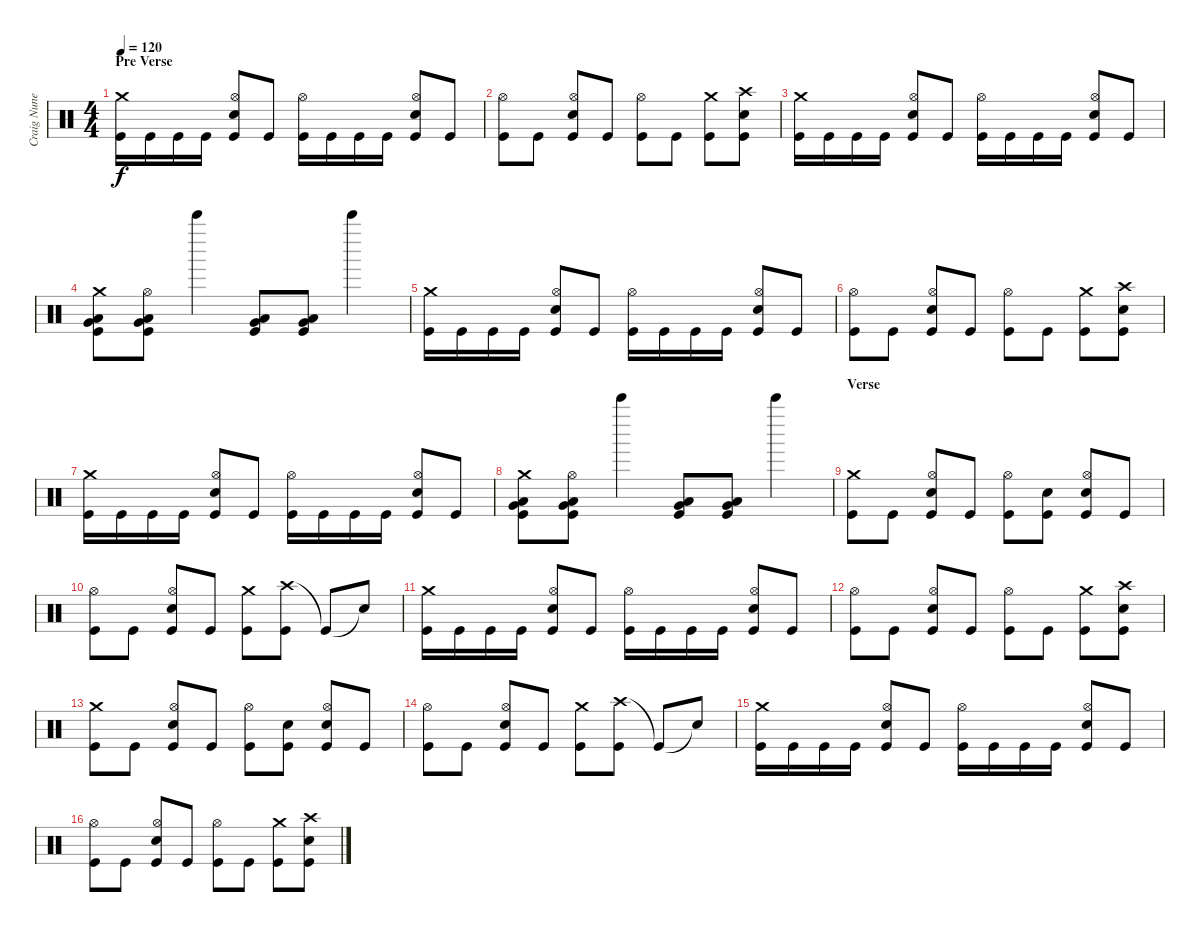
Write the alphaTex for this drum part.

\track ("Craig Nunenmacher" "Craig Nune") {instrument percussion}
\staff {score}
\articulation defaults
\ts (4 4)
\section ("" "Pre Verse")
\tempo 120
\clef neutral
\ks c
("Crash medium (hit)" "Kick (hit)").16{dy f} "Kick (hit)".16 "Kick (hit)".16 "Kick (hit)".16 ("Hi-Hat (open)" "Snare (hit) 2" "Kick (hit)").8 "Kick (hit)".8 ("Hi-Hat (open)" "Kick (hit)").16 "Kick (hit)".16 "Kick (hit)".16 "Kick (hit)".16 ("Hi-Hat (open)" "Snare (hit) 2" "Kick (hit)").8 "Kick (hit)".8 |
("Hi-Hat (open)" "Kick (hit)").8 "Kick (hit)".8 ("Hi-Hat (open)" "Snare (hit) 2" "Kick (hit)").8 "Kick (hit)".8 ("Hi-Hat (open)" "Kick (hit)").8 "Kick (hit)".8 ("Crash medium (hit)" "Kick (hit)").8 ("Crash high (hit)" "Snare (hit) 2" "Kick (hit)").8 |
("Crash medium (hit)" "Kick (hit)").16 "Kick (hit)".16 "Kick (hit)".16 "Kick (hit)".16 ("Hi-Hat (open)" "Snare (hit) 2" "Kick (hit)").8 "Kick (hit)".8 ("Hi-Hat (open)" "Kick (hit)").16 "Kick (hit)".16 "Kick (hit)".16 "Kick (hit)".16 ("Hi-Hat (open)" "Snare (hit) 2" "Kick (hit)").8 "Kick (hit)".8 |
("Crash medium (hit)" "Low Tom (hit)" "Very Low Tom (hit)" "Kick (hit)").8 ("Hi-Hat (open)" "Low Tom (hit)" "Very Low Tom (hit)" "Kick (hit)").8 "Bell Tree (hit)".4 ("Low Tom (hit)" "Very Low Tom (hit)" "Kick (hit)").8 ("Low Tom (hit)" "Very Low Tom (hit)" "Kick (hit)").8 "Bell Tree (hit)".4 |
("Crash medium (hit)" "Kick (hit)").16 "Kick (hit)".16 "Kick (hit)".16 "Kick (hit)".16 ("Hi-Hat (open)" "Snare (hit) 2" "Kick (hit)").8 "Kick (hit)".8 ("Hi-Hat (open)" "Kick (hit)").16 "Kick (hit)".16 "Kick (hit)".16 "Kick (hit)".16 ("Hi-Hat (open)" "Snare (hit) 2" "Kick (hit)").8 "Kick (hit)".8 |
("Hi-Hat (open)" "Kick (hit)").8 "Kick (hit)".8 ("Hi-Hat (open)" "Snare (hit) 2" "Kick (hit)").8 "Kick (hit)".8 ("Hi-Hat (open)" "Kick (hit)").8 "Kick (hit)".8 ("Crash medium (hit)" "Kick (hit)").8 ("Crash high (hit)" "Snare (hit) 2" "Kick (hit)").8 |
("Crash medium (hit)" "Kick (hit)").16 "Kick (hit)".16 "Kick (hit)".16 "Kick (hit)".16 ("Hi-Hat (open)" "Snare (hit) 2" "Kick (hit)").8 "Kick (hit)".8 ("Hi-Hat (open)" "Kick (hit)").16 "Kick (hit)".16 "Kick (hit)".16 "Kick (hit)".16 ("Hi-Hat (open)" "Snare (hit) 2" "Kick (hit)").8 "Kick (hit)".8 |
("Crash medium (hit)" "Low Tom (hit)" "Very Low Tom (hit)" "Kick (hit)").8 ("Hi-Hat (open)" "Low Tom (hit)" "Very Low Tom (hit)" "Kick (hit)").8 "Bell Tree (hit)".4 ("Low Tom (hit)" "Very Low Tom (hit)" "Kick (hit)").8 ("Low Tom (hit)" "Very Low Tom (hit)" "Kick (hit)").8 "Bell Tree (hit)".4 |
\section ("" "Verse")
("Crash medium (hit)" "Kick (hit)").8 "Kick (hit)".8 ("Hi-Hat (open)" "Snare (hit) 2" "Kick (hit)").8 "Kick (hit)".8 ("Hi-Hat (open)" "Kick (hit)").8 ("Snare (hit) 2" "Kick (hit)").8 ("Hi-Hat (open)" "Snare (hit) 2" "Kick (hit)").8 "Kick (hit)".8 |
("Hi-Hat (open)" "Kick (hit)").8 "Kick (hit)".8 ("Hi-Hat (open)" "Snare (hit) 2" "Kick (hit)").8 "Kick (hit)".8 ("Crash medium (hit)" "Kick (hit)").8 ("Crash high (hit)" "Kick (hit)").8 "Kick (hit)"{t}.8 "Snare (hit)"{t}.8 |
("Crash medium (hit)" "Kick (hit)").16 "Kick (hit)".16 "Kick (hit)".16 "Kick (hit)".16 ("Hi-Hat (open)" "Snare (hit) 2" "Kick (hit)").8 "Kick (hit)".8 ("Hi-Hat (open)" "Kick (hit)").16 "Kick (hit)".16 "Kick (hit)".16 "Kick (hit)".16 ("Hi-Hat (open)" "Snare (hit) 2" "Kick (hit)").8 "Kick (hit)".8 |
("Hi-Hat (open)" "Kick (hit)").8 "Kick (hit)".8 ("Hi-Hat (open)" "Snare (hit) 2" "Kick (hit)").8 "Kick (hit)".8 ("Hi-Hat (open)" "Kick (hit)").8 "Kick (hit)".8 ("Crash medium (hit)" "Kick (hit)").8 ("Crash high (hit)" "Snare (hit) 2" "Kick (hit)").8 |
("Crash medium (hit)" "Kick (hit)").8 "Kick (hit)".8 ("Hi-Hat (open)" "Snare (hit) 2" "Kick (hit)").8 "Kick (hit)".8 ("Hi-Hat (open)" "Kick (hit)").8 ("Snare (hit) 2" "Kick (hit)").8 ("Hi-Hat (open)" "Snare (hit) 2" "Kick (hit)").8 "Kick (hit)".8 |
("Hi-Hat (open)" "Kick (hit)").8 "Kick (hit)".8 ("Hi-Hat (open)" "Snare (hit) 2" "Kick (hit)").8 "Kick (hit)".8 ("Crash medium (hit)" "Kick (hit)").8 ("Crash high (hit)" "Kick (hit)").8 "Kick (hit)"{t}.8 "Snare (hit)"{t}.8 |
("Crash medium (hit)" "Kick (hit)").16 "Kick (hit)".16 "Kick (hit)".16 "Kick (hit)".16 ("Hi-Hat (open)" "Snare (hit) 2" "Kick (hit)").8 "Kick (hit)".8 ("Hi-Hat (open)" "Kick (hit)").16 "Kick (hit)".16 "Kick (hit)".16 "Kick (hit)".16 ("Hi-Hat (open)" "Snare (hit) 2" "Kick (hit)").8 "Kick (hit)".8 |
("Hi-Hat (open)" "Kick (hit)").8 "Kick (hit)".8 ("Hi-Hat (open)" "Snare (hit) 2" "Kick (hit)").8 "Kick (hit)".8 ("Hi-Hat (open)" "Kick (hit)").8 "Kick (hit)".8 ("Crash medium (hit)" "Kick (hit)").8 ("Crash high (hit)" "Snare (hit) 2" "Kick (hit)").8
